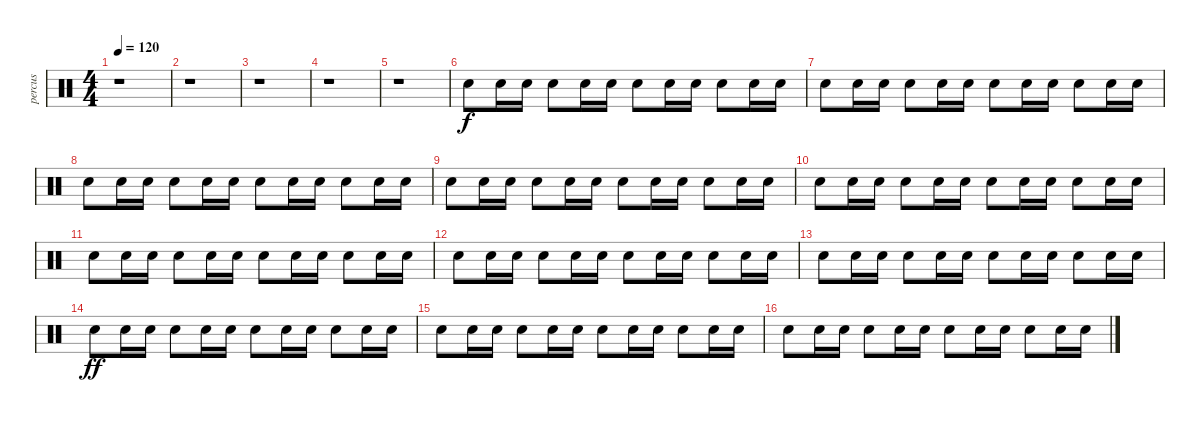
\track ("percus" "percus") {instrument percussion}
\staff {score}
\articulation defaults
\ts (4 4)
\tempo 120
\clef neutral
\ks c
r.1{dy f} |
r.1 |
r.1 |
r.1 |
r.1 |
"Snare (hit)".8{volume 0} "Snare (hit)".16{volume 0} "Snare (hit)".16{volume 1} "Snare (hit)".8{volume 1} "Snare (hit)".16{volume 2} "Snare (hit)".16{volume 2} "Snare (hit)".8{volume 2} "Snare (hit)".16{volume 3} "Snare (hit)".16{volume 3} "Snare (hit)".8{volume 3} "Snare (hit)".16{volume 4} "Snare (hit)".16{volume 4} |
"Snare (hit)".8{volume 4} "Snare (hit)".16{volume 5} "Snare (hit)".16{volume 5} "Snare (hit)".8{volume 6} "Snare (hit)".16{volume 6} "Snare (hit)".16{volume 6} "Snare (hit)".8{volume 7} "Snare (hit)".16{volume 7} "Snare (hit)".16{volume 8} "Snare (hit)".8{volume 8} "Snare (hit)".16{volume 8} "Snare (hit)".16{volume 9} |
"Snare (hit)".8{volume 9} "Snare (hit)".16{volume 10} "Snare (hit)".16{volume 10} "Snare (hit)".8{volume 10} "Snare (hit)".16{volume 11} "Snare (hit)".16{volume 11} "Snare (hit)".8{volume 11} "Snare (hit)".16{volume 12} "Snare (hit)".16{volume 12} "Snare (hit)".8{volume 12} "Snare (hit)".16{volume 13} "Snare (hit)".16{volume 13} |
"Snare (hit)".8{volume 14} "Snare (hit)".16 "Snare (hit)".16 "Snare (hit)".8 "Snare (hit)".16 "Snare (hit)".16 "Snare (hit)".8 "Snare (hit)".16 "Snare (hit)".16 "Snare (hit)".8 "Snare (hit)".16 "Snare (hit)".16 |
"Snare (hit)".8 "Snare (hit)".16 "Snare (hit)".16 "Snare (hit)".8 "Snare (hit)".16 "Snare (hit)".16 "Snare (hit)".8 "Snare (hit)".16 "Snare (hit)".16 "Snare (hit)".8 "Snare (hit)".16 "Snare (hit)".16 |
"Snare (hit)".8 "Snare (hit)".16 "Snare (hit)".16 "Snare (hit)".8 "Snare (hit)".16 "Snare (hit)".16 "Snare (hit)".8 "Snare (hit)".16 "Snare (hit)".16 "Snare (hit)".8 "Snare (hit)".16 "Snare (hit)".16 |
"Snare (hit)".8 "Snare (hit)".16 "Snare (hit)".16 "Snare (hit)".8 "Snare (hit)".16 "Snare (hit)".16 "Snare (hit)".8 "Snare (hit)".16 "Snare (hit)".16 "Snare (hit)".8 "Snare (hit)".16 "Snare (hit)".16 |
"Snare (hit)".8 "Snare (hit)".16 "Snare (hit)".16 "Snare (hit)".8 "Snare (hit)".16 "Snare (hit)".16 "Snare (hit)".8 "Snare (hit)".16 "Snare (hit)".16 "Snare (hit)".8 "Snare (hit)".16 "Snare (hit)".16 |
"Snare (hit)".8{dy ff volume 12} "Snare (hit)".16 "Snare (hit)".16{volume 13} "Snare (hit)".8 "Snare (hit)".16{volume 13} "Snare (hit)".16 "Snare (hit)".8{volume 13} "Snare (hit)".16{volume 13} "Snare (hit)".16 "Snare (hit)".8{volume 13} "Snare (hit)".16 "Snare (hit)".16{volume 13} |
"Snare (hit)".8 "Snare (hit)".16{volume 13} "Snare (hit)".16{volume 14} "Snare (hit)".8 "Snare (hit)".16{volume 14} "Snare (hit)".16 "Snare (hit)".8{volume 14} "Snare (hit)".16 "Snare (hit)".16{volume 14} "Snare (hit)".8 "Snare (hit)".16{volume 14} "Snare (hit)".16{volume 14} |
"Snare (hit)".8 "Snare (hit)".16{volume 14} "Snare (hit)".16 "Snare (hit)".8{volume 14} "Snare (hit)".16{volume 14} "Snare (hit)".16 "Snare (hit)".8 "Snare (hit)".16{volume 15} "Snare (hit)".16{volume 15} "Snare (hit)".8 "Snare (hit)".16{volume 15} "Snare (hit)".16
